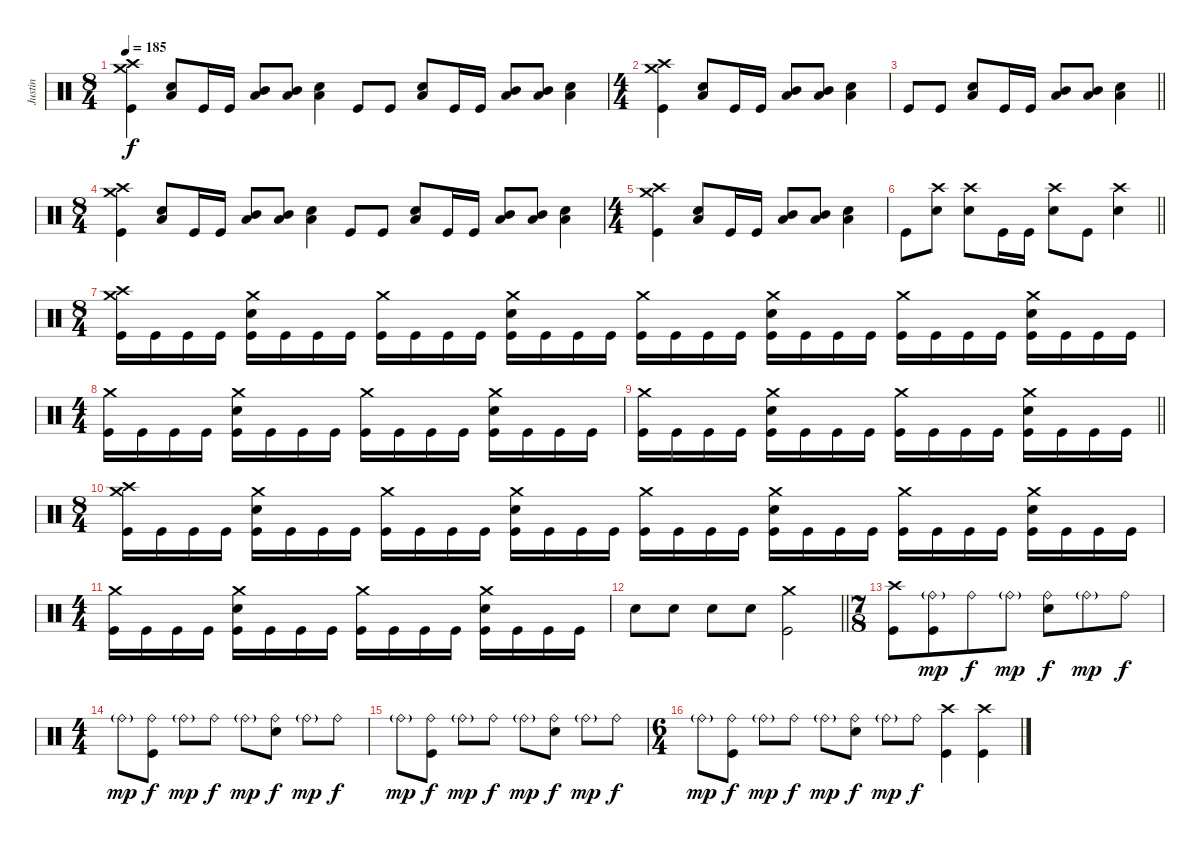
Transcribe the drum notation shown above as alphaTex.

\track ("Justin" "Justin") {instrument percussion}
\staff {score}
\articulation defaults
\ts (8 4)
\tempo 185
\clef neutral
\ks c
("Crash high (hit)" "Crash medium (hit)" "Kick (hit)").4{dy f} ("Low Tom (hit)" "Electric Snare (hit)").8 "Kick (hit)".16 "Kick (hit)".16 ("Mid Tom (hit)" "Low Tom (hit)").8 ("Mid Tom (hit)" "Low Tom (hit)").8 ("Low Tom (hit)" "Electric Snare (hit)").4 "Kick (hit)".8 "Kick (hit)".8 ("Low Tom (hit)" "Electric Snare (hit)").8 "Kick (hit)".16 "Kick (hit)".16 ("Mid Tom (hit)" "Low Tom (hit)").8 ("Mid Tom (hit)" "Low Tom (hit)").8 ("Low Tom (hit)" "Electric Snare (hit)").4 |
\ts (4 4)
("Crash high (hit)" "Crash medium (hit)" "Kick (hit)").4 ("Low Tom (hit)" "Electric Snare (hit)").8 "Kick (hit)".16 "Kick (hit)".16 ("Mid Tom (hit)" "Low Tom (hit)").8 ("Mid Tom (hit)" "Low Tom (hit)").8 ("Low Tom (hit)" "Electric Snare (hit)").4 |
\barLineRight lightlight "Kick (hit)".8 "Kick (hit)".8
("Low Tom (hit)" "Electric Snare (hit)").8 "Kick (hit)".16 "Kick (hit)".16 ("Mid Tom (hit)" "Low Tom (hit)").8 ("Mid Tom (hit)" "Low Tom (hit)").8 ("Low Tom (hit)" "Electric Snare (hit)").4 |
\ts (8 4)
("Crash high (hit)" "Crash medium (hit)" "Kick (hit)").4 ("Low Tom (hit)" "Electric Snare (hit)").8 "Kick (hit)".16 "Kick (hit)".16 ("Mid Tom (hit)" "Low Tom (hit)").8 ("Mid Tom (hit)" "Low Tom (hit)").8 ("Low Tom (hit)" "Electric Snare (hit)").4 "Kick (hit)".8 "Kick (hit)".8 ("Low Tom (hit)" "Electric Snare (hit)").8 "Kick (hit)".16 "Kick (hit)".16 ("Mid Tom (hit)" "Low Tom (hit)").8 ("Mid Tom (hit)" "Low Tom (hit)").8 ("Low Tom (hit)" "Electric Snare (hit)").4 |
\ts (4 4)
("Crash high (hit)" "Crash medium (hit)" "Kick (hit)").4 ("Low Tom (hit)" "Electric Snare (hit)").8 "Kick (hit)".16 "Kick (hit)".16 ("Mid Tom (hit)" "Low Tom (hit)").8 ("Mid Tom (hit)" "Low Tom (hit)").8 ("Low Tom (hit)" "Electric Snare (hit)").4 |
\barLineRight lightlight "Kick (hit)".8
("Crash high (hit)" "Electric Snare (hit)").8 ("Crash high (hit)" "Electric Snare (hit)").8 "Kick (hit)".16 "Kick (hit)".16 ("Crash high (hit)" "Electric Snare (hit)").8 "Kick (hit)".8 ("Crash high (hit)" "Electric Snare (hit)").4 |
\ts (8 4)
("Crash high (hit)" "Crash medium (hit)" "Kick (hit)").16 "Kick (hit)".16 "Kick (hit)".16 "Kick (hit)".16 ("Crash medium (hit)" "Electric Snare (hit)" "Kick (hit)").16 "Kick (hit)".16 "Kick (hit)".16 "Kick (hit)".16 ("Crash medium (hit)" "Kick (hit)").16 "Kick (hit)".16 "Kick (hit)".16 "Kick (hit)".16 ("Crash medium (hit)" "Electric Snare (hit)" "Kick (hit)").16 "Kick (hit)".16 "Kick (hit)".16 "Kick (hit)".16 ("Crash medium (hit)" "Kick (hit)").16 "Kick (hit)".16 "Kick (hit)".16 "Kick (hit)".16 ("Crash medium (hit)" "Electric Snare (hit)" "Kick (hit)").16 "Kick (hit)".16 "Kick (hit)".16 "Kick (hit)".16 ("Crash medium (hit)" "Kick (hit)").16 "Kick (hit)".16 "Kick (hit)".16 "Kick (hit)".16 ("Crash medium (hit)" "Electric Snare (hit)" "Kick (hit)").16 "Kick (hit)".16 "Kick (hit)".16 "Kick (hit)".16 |
\ts (4 4)
("Crash medium (hit)" "Kick (hit)").16 "Kick (hit)".16 "Kick (hit)".16 "Kick (hit)".16 ("Crash medium (hit)" "Electric Snare (hit)" "Kick (hit)").16 "Kick (hit)".16 "Kick (hit)".16 "Kick (hit)".16 ("Crash medium (hit)" "Kick (hit)").16 "Kick (hit)".16 "Kick (hit)".16 "Kick (hit)".16 ("Crash medium (hit)" "Electric Snare (hit)" "Kick (hit)").16 "Kick (hit)".16 "Kick (hit)".16 "Kick (hit)".16 |
\barLineRight lightlight
("Crash medium (hit)" "Kick (hit)").16 "Kick (hit)".16 "Kick (hit)".16 "Kick (hit)".16 ("Crash medium (hit)" "Electric Snare (hit)" "Kick (hit)").16 "Kick (hit)".16 "Kick (hit)".16 "Kick (hit)".16 ("Crash medium (hit)" "Kick (hit)").16 "Kick (hit)".16 "Kick (hit)".16 "Kick (hit)".16 ("Crash medium (hit)" "Electric Snare (hit)" "Kick (hit)").16 "Kick (hit)".16 "Kick (hit)".16 "Kick (hit)".16 |
\ts (8 4)
("Crash high (hit)" "Crash medium (hit)" "Kick (hit)").16 "Kick (hit)".16 "Kick (hit)".16 "Kick (hit)".16 ("Crash medium (hit)" "Electric Snare (hit)" "Kick (hit)").16 "Kick (hit)".16 "Kick (hit)".16 "Kick (hit)".16 ("Crash medium (hit)" "Kick (hit)").16 "Kick (hit)".16 "Kick (hit)".16 "Kick (hit)".16 ("Crash medium (hit)" "Electric Snare (hit)" "Kick (hit)").16 "Kick (hit)".16 "Kick (hit)".16 "Kick (hit)".16 ("Crash medium (hit)" "Kick (hit)").16 "Kick (hit)".16 "Kick (hit)".16 "Kick (hit)".16 ("Crash medium (hit)" "Electric Snare (hit)" "Kick (hit)").16 "Kick (hit)".16 "Kick (hit)".16 "Kick (hit)".16 ("Crash medium (hit)" "Kick (hit)").16 "Kick (hit)".16 "Kick (hit)".16 "Kick (hit)".16 ("Crash medium (hit)" "Electric Snare (hit)" "Kick (hit)").16 "Kick (hit)".16 "Kick (hit)".16 "Kick (hit)".16 |
\ts (4 4)
("Crash medium (hit)" "Kick (hit)").16 "Kick (hit)".16 "Kick (hit)".16 "Kick (hit)".16 ("Crash medium (hit)" "Electric Snare (hit)" "Kick (hit)").16 "Kick (hit)".16 "Kick (hit)".16 "Kick (hit)".16 ("Crash medium (hit)" "Kick (hit)").16 "Kick (hit)".16 "Kick (hit)".16 "Kick (hit)".16 ("Crash medium (hit)" "Electric Snare (hit)" "Kick (hit)").16 "Kick (hit)".16 "Kick (hit)".16 "Kick (hit)".16 |
\barLineRight lightlight "Electric Snare (hit)".8 "Electric Snare (hit)".8 "Electric Snare (hit)".8 "Electric Snare (hit)".8
("Crash medium (hit)" "Kick (hit)").2 |
\ts (7 8)
("Crash high (hit)" "Kick (hit)").8 ("Ride (bell)"{g} "Kick (hit)").8{dy mp} "Ride (bell)".8{dy f} "Ride (bell)"{g}.8{dy mp} ("Ride (bell)" "Electric Snare (hit)").8{dy f} "Ride (bell)"{g}.8{dy mp} "Ride (bell)".8{dy f} |
\ts (4 4)
"Ride (bell)"{g}.8{dy mp} ("Ride (bell)" "Kick (hit)").8{dy f} "Ride (bell)"{g}.8{dy mp} "Ride (bell)".8{dy f} "Ride (bell)"{g}.8{dy mp} ("Ride (bell)" "Electric Snare (hit)").8{dy f} "Ride (bell)"{g}.8{dy mp} "Ride (bell)".8{dy f} |
"Ride (bell)"{g}.8{dy mp} ("Ride (bell)" "Kick (hit)").8{dy f} "Ride (bell)"{g}.8{dy mp} "Ride (bell)".8{dy f} "Ride (bell)"{g}.8{dy mp} ("Ride (bell)" "Electric Snare (hit)").8{dy f} "Ride (bell)"{g}.8{dy mp} "Ride (bell)".8{dy f} |
\ts (6 4)
"Ride (bell)"{g}.8{dy mp} ("Ride (bell)" "Kick (hit)").8{dy f} "Ride (bell)"{g}.8{dy mp} "Ride (bell)".8{dy f} "Ride (bell)"{g}.8{dy mp} ("Ride (bell)" "Electric Snare (hit)").8{dy f} "Ride (bell)"{g}.8{dy mp} "Ride (bell)".8{dy f} ("Crash high (hit)" "Kick (hit)").4 ("Crash high (hit)" "Kick (hit)").4
